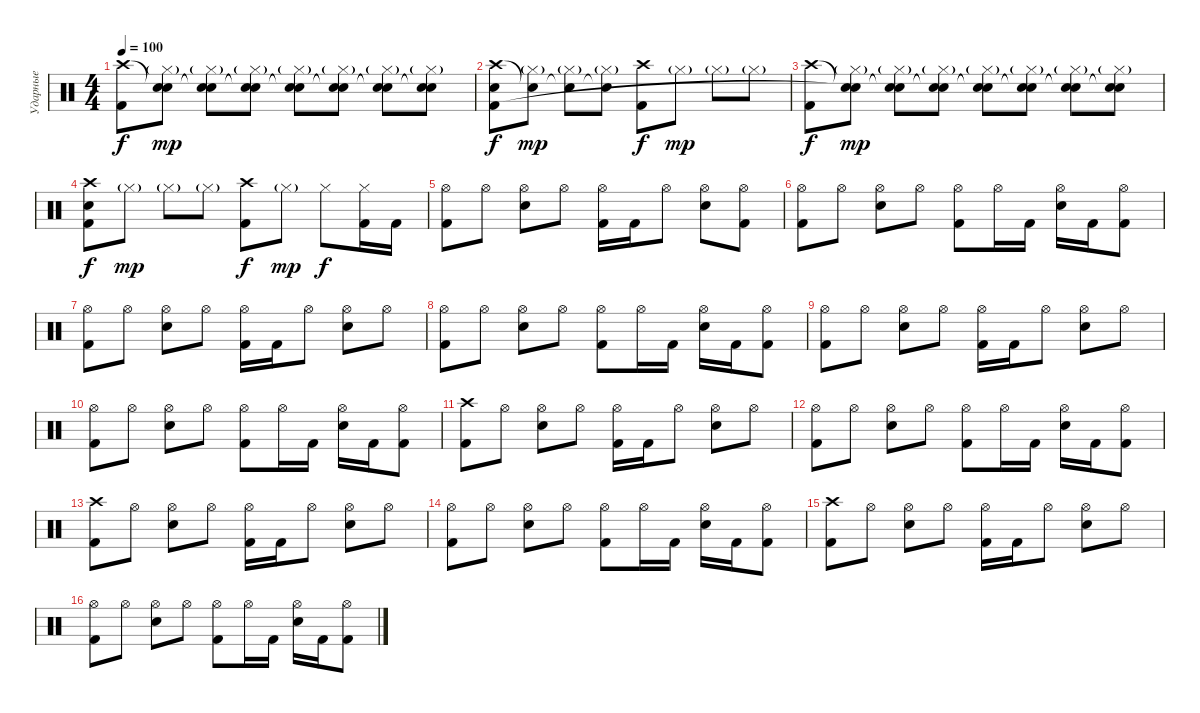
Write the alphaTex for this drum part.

\track ("Ударные" "Ударные") {instrument percussion}
\staff {score}
\articulation defaults
\ts (4 4)
\tempo 100
\clef neutral
\ks c
("Crash high (hit)" "Kick (hit) 2").8{dy f} ("Snare (hit)"{t} "Hi-Hat (closed)"{g} "Snare (hit)").8{dy mp} ("Snare (hit)"{t} "Hi-Hat (closed)"{g} "Snare (hit)"{t}).8 ("Snare (hit)"{t} "Hi-Hat (closed)"{g} "Snare (hit)"{t}).8 ("Snare (hit)"{t} "Hi-Hat (closed)"{g} "Snare (hit)"{t}).8 ("Snare (hit)"{t} "Hi-Hat (closed)"{g} "Snare (hit)"{t}).8 ("Snare (hit)"{t} "Hi-Hat (closed)"{g} "Snare (hit)"{t}).8 ("Snare (hit)"{t} "Hi-Hat (closed)"{g} "Snare (hit)"{t}).8 |
("Crash high (hit)" "Snare (hit) 2" "Kick (hit) 2").8{dy f} ("Snare (hit)"{t} "Hi-Hat (closed)"{g}).8{dy mp} ("Snare (hit)"{t} "Hi-Hat (closed)"{g}).8 ("Snare (hit)"{t} "Hi-Hat (closed)"{g}).8 ("Crash high (hit)" "Kick (hit) 2").8{dy f} "Hi-Hat (closed)"{g}.8{dy mp} "Hi-Hat (closed)"{g}.8 "Hi-Hat (closed)"{g}.8 |
("Crash high (hit)" "Kick (hit) 2").8{dy f} ("Snare (hit)"{t} "Hi-Hat (closed)"{g} "Snare (hit)"{t}).8{dy mp} ("Snare (hit)"{t} "Hi-Hat (closed)"{g} "Snare (hit)"{t}).8 ("Snare (hit)"{t} "Hi-Hat (closed)"{g} "Snare (hit)"{t}).8 ("Snare (hit)"{t} "Hi-Hat (closed)"{g} "Snare (hit)"{t}).8 ("Snare (hit)"{t} "Hi-Hat (closed)"{g} "Snare (hit)"{t}).8 ("Snare (hit)"{t} "Hi-Hat (closed)"{g} "Snare (hit)"{t}).8 ("Snare (hit)"{t} "Hi-Hat (closed)"{g} "Snare (hit)"{t}).8 |
("Crash high (hit)" "Snare (hit) 2" "Kick (hit) 2").8{dy f} "Hi-Hat (closed)"{g}.8{dy mp} "Hi-Hat (closed)"{g}.8 "Hi-Hat (closed)"{g}.8 ("Crash high (hit)" "Kick (hit) 2").8{dy f} "Hi-Hat (closed)"{g}.8{dy mp} "Hi-Hat (closed)".8{dy f} ("Hi-Hat (closed)" "Kick (hit) 2").16 "Kick (hit) 2".16 |
("Hi-Hat (open)" "Kick (hit) 2").8 "Hi-Hat (open)".8 ("Hi-Hat (open)" "Snare (hit) 2").8 "Hi-Hat (open)".8 ("Hi-Hat (open)" "Kick (hit) 2").16 "Kick (hit) 2".16 "Hi-Hat (open)".8 ("Hi-Hat (open)" "Snare (hit) 2").8 ("Hi-Hat (open)" "Kick (hit) 2").8 |
("Hi-Hat (open)" "Kick (hit) 2").8 "Hi-Hat (open)".8 ("Hi-Hat (open)" "Snare (hit) 2").8 "Hi-Hat (open)".8 ("Hi-Hat (open)" "Kick (hit) 2").8 "Hi-Hat (open)".16 "Kick (hit) 2".16 ("Hi-Hat (open)" "Snare (hit) 2").16 "Kick (hit) 2".16 ("Hi-Hat (open)" "Kick (hit) 2").8 |
("Hi-Hat (open)" "Kick (hit) 2").8 "Hi-Hat (open)".8 ("Hi-Hat (open)" "Snare (hit) 2").8 "Hi-Hat (open)".8 ("Hi-Hat (open)" "Kick (hit) 2").16 "Kick (hit) 2".16 "Hi-Hat (open)".8 ("Hi-Hat (open)" "Snare (hit) 2").8 "Hi-Hat (open)".8 |
("Hi-Hat (open)" "Kick (hit) 2").8 "Hi-Hat (open)".8 ("Hi-Hat (open)" "Snare (hit) 2").8 "Hi-Hat (open)".8 ("Hi-Hat (open)" "Kick (hit) 2").8 "Hi-Hat (open)".16 "Kick (hit) 2".16 ("Hi-Hat (open)" "Snare (hit) 2").16 "Kick (hit) 2".16 ("Hi-Hat (open)" "Kick (hit) 2").8 |
("Hi-Hat (open)" "Kick (hit) 2").8 "Hi-Hat (open)".8 ("Hi-Hat (open)" "Snare (hit) 2").8 "Hi-Hat (open)".8 ("Hi-Hat (open)" "Kick (hit) 2").16 "Kick (hit) 2".16 "Hi-Hat (open)".8 ("Hi-Hat (open)" "Snare (hit) 2").8 "Hi-Hat (open)".8 |
("Hi-Hat (open)" "Kick (hit) 2").8 "Hi-Hat (open)".8 ("Hi-Hat (open)" "Snare (hit) 2").8 "Hi-Hat (open)".8 ("Hi-Hat (open)" "Kick (hit) 2").8 "Hi-Hat (open)".16 "Kick (hit) 2".16 ("Hi-Hat (open)" "Snare (hit) 2").16 "Kick (hit) 2".16 ("Hi-Hat (open)" "Kick (hit) 2").8 |
("Crash high (hit)" "Kick (hit) 2").8 "Hi-Hat (open)".8 ("Hi-Hat (open)" "Snare (hit) 2").8 "Hi-Hat (open)".8 ("Hi-Hat (open)" "Kick (hit) 2").16 "Kick (hit) 2".16 "Hi-Hat (open)".8 ("Hi-Hat (open)" "Snare (hit) 2").8 "Hi-Hat (open)".8 |
("Hi-Hat (open)" "Kick (hit) 2").8 "Hi-Hat (open)".8 ("Hi-Hat (open)" "Snare (hit) 2").8 "Hi-Hat (open)".8 ("Hi-Hat (open)" "Kick (hit) 2").8 "Hi-Hat (open)".16 "Kick (hit) 2".16 ("Hi-Hat (open)" "Snare (hit) 2").16 "Kick (hit) 2".16 ("Hi-Hat (open)" "Kick (hit) 2").8 |
("Crash high (hit)" "Kick (hit) 2").8 "Hi-Hat (open)".8 ("Hi-Hat (open)" "Snare (hit) 2").8 "Hi-Hat (open)".8 ("Hi-Hat (open)" "Kick (hit) 2").16 "Kick (hit) 2".16 "Hi-Hat (open)".8 ("Hi-Hat (open)" "Snare (hit) 2").8 "Hi-Hat (open)".8 |
("Hi-Hat (open)" "Kick (hit) 2").8 "Hi-Hat (open)".8 ("Hi-Hat (open)" "Snare (hit) 2").8 "Hi-Hat (open)".8 ("Hi-Hat (open)" "Kick (hit) 2").8 "Hi-Hat (open)".16 "Kick (hit) 2".16 ("Hi-Hat (open)" "Snare (hit) 2").16 "Kick (hit) 2".16 ("Hi-Hat (open)" "Kick (hit) 2").8 |
("Crash high (hit)" "Kick (hit) 2").8 "Hi-Hat (open)".8 ("Hi-Hat (open)" "Snare (hit) 2").8 "Hi-Hat (open)".8 ("Hi-Hat (open)" "Kick (hit) 2").16 "Kick (hit) 2".16 "Hi-Hat (open)".8 ("Hi-Hat (open)" "Snare (hit) 2").8 "Hi-Hat (open)".8 |
("Hi-Hat (open)" "Kick (hit) 2").8 "Hi-Hat (open)".8 ("Hi-Hat (open)" "Snare (hit) 2").8 "Hi-Hat (open)".8 ("Hi-Hat (open)" "Kick (hit) 2").8 "Hi-Hat (open)".16 "Kick (hit) 2".16 ("Hi-Hat (open)" "Snare (hit) 2").16 "Kick (hit) 2".16 ("Hi-Hat (open)" "Kick (hit) 2").8
